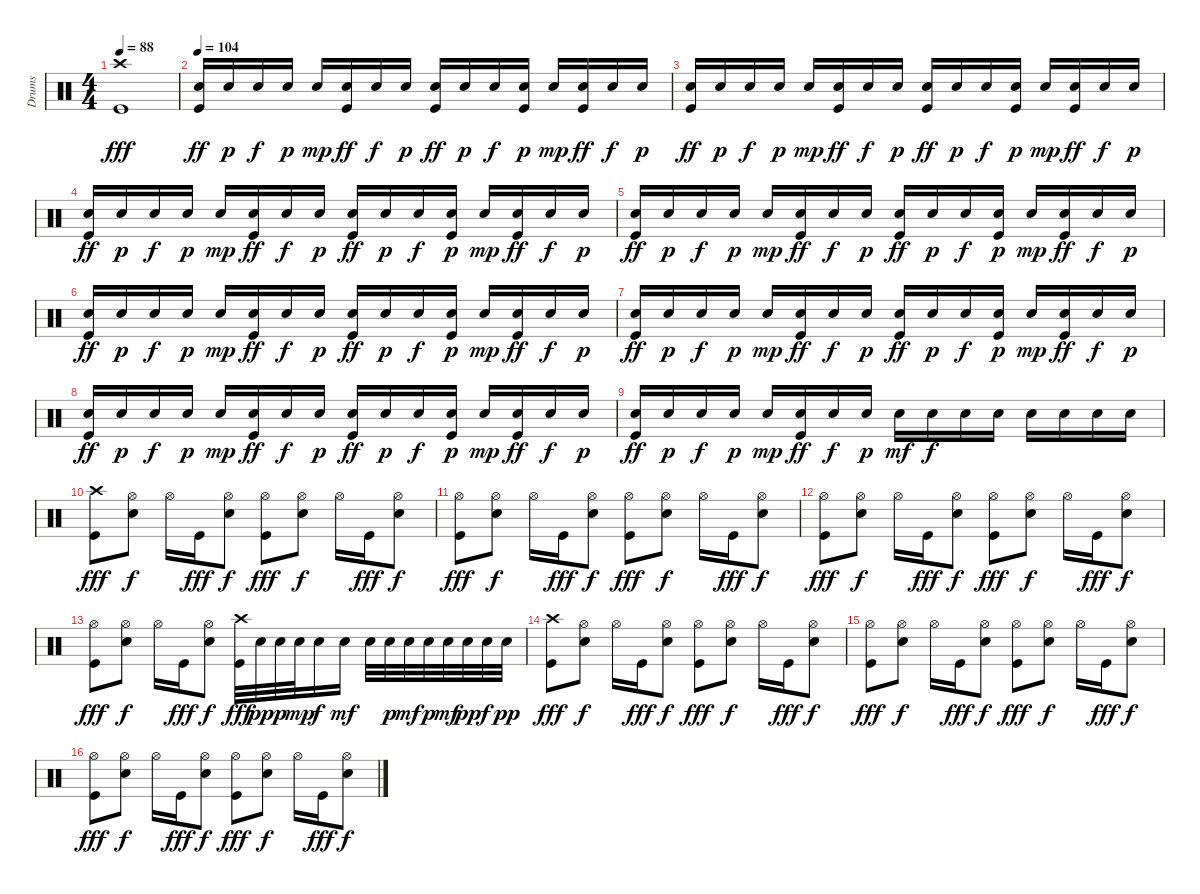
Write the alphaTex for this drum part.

\track ("Drums" "Drums") {instrument percussion}
\staff {score}
\articulation defaults
\ts (4 4)
\tempo 88
\clef neutral
\ks c
("Crash high (hit)" "Kick (hit)").1{dy fff} |
\tempo 104
("Snare (hit) 2" "Kick (hit)").16{dy ff} "Snare (hit) 2".16{dy p} "Snare (hit) 2".16{dy f} "Snare (hit) 2".16{dy p} "Snare (hit) 2".16{dy mp} ("Snare (hit) 2" "Kick (hit)").16{dy ff} "Snare (hit) 2".16{dy f} "Snare (hit) 2".16{dy p} ("Snare (hit) 2" "Kick (hit)").16{dy ff} "Snare (hit) 2".16{dy p} "Snare (hit) 2".16{dy f} ("Snare (hit) 2" "Kick (hit)").16{dy p} "Snare (hit) 2".16{dy mp} ("Snare (hit) 2" "Kick (hit)").16{dy ff} "Snare (hit) 2".16{dy f} "Snare (hit) 2".16{dy p} |
("Snare (hit) 2" "Kick (hit)").16{dy ff} "Snare (hit) 2".16{dy p} "Snare (hit) 2".16{dy f} "Snare (hit) 2".16{dy p} "Snare (hit) 2".16{dy mp} ("Snare (hit) 2" "Kick (hit)").16{dy ff} "Snare (hit) 2".16{dy f} "Snare (hit) 2".16{dy p} ("Snare (hit) 2" "Kick (hit)").16{dy ff} "Snare (hit) 2".16{dy p} "Snare (hit) 2".16{dy f} ("Snare (hit) 2" "Kick (hit)").16{dy p} "Snare (hit) 2".16{dy mp} ("Snare (hit) 2" "Kick (hit)").16{dy ff} "Snare (hit) 2".16{dy f} "Snare (hit) 2".16{dy p} |
("Snare (hit) 2" "Kick (hit)").16{dy ff} "Snare (hit) 2".16{dy p} "Snare (hit) 2".16{dy f} "Snare (hit) 2".16{dy p} "Snare (hit) 2".16{dy mp} ("Snare (hit) 2" "Kick (hit)").16{dy ff} "Snare (hit) 2".16{dy f} "Snare (hit) 2".16{dy p} ("Snare (hit) 2" "Kick (hit)").16{dy ff} "Snare (hit) 2".16{dy p} "Snare (hit) 2".16{dy f} ("Snare (hit) 2" "Kick (hit)").16{dy p} "Snare (hit) 2".16{dy mp} ("Snare (hit) 2" "Kick (hit)").16{dy ff} "Snare (hit) 2".16{dy f} "Snare (hit) 2".16{dy p} |
("Snare (hit) 2" "Kick (hit)").16{dy ff} "Snare (hit) 2".16{dy p} "Snare (hit) 2".16{dy f} "Snare (hit) 2".16{dy p} "Snare (hit) 2".16{dy mp} ("Snare (hit) 2" "Kick (hit)").16{dy ff} "Snare (hit) 2".16{dy f} "Snare (hit) 2".16{dy p} ("Snare (hit) 2" "Kick (hit)").16{dy ff} "Snare (hit) 2".16{dy p} "Snare (hit) 2".16{dy f} ("Snare (hit) 2" "Kick (hit)").16{dy p} "Snare (hit) 2".16{dy mp} ("Snare (hit) 2" "Kick (hit)").16{dy ff} "Snare (hit) 2".16{dy f} "Snare (hit) 2".16{dy p} |
("Snare (hit) 2" "Kick (hit)").16{dy ff} "Snare (hit) 2".16{dy p} "Snare (hit) 2".16{dy f} "Snare (hit) 2".16{dy p} "Snare (hit) 2".16{dy mp} ("Snare (hit) 2" "Kick (hit)").16{dy ff} "Snare (hit) 2".16{dy f} "Snare (hit) 2".16{dy p} ("Snare (hit) 2" "Kick (hit)").16{dy ff} "Snare (hit) 2".16{dy p} "Snare (hit) 2".16{dy f} ("Snare (hit) 2" "Kick (hit)").16{dy p} "Snare (hit) 2".16{dy mp} ("Snare (hit) 2" "Kick (hit)").16{dy ff} "Snare (hit) 2".16{dy f} "Snare (hit) 2".16{dy p} |
("Snare (hit) 2" "Kick (hit)").16{dy ff} "Snare (hit) 2".16{dy p} "Snare (hit) 2".16{dy f} "Snare (hit) 2".16{dy p} "Snare (hit) 2".16{dy mp} ("Snare (hit) 2" "Kick (hit)").16{dy ff} "Snare (hit) 2".16{dy f} "Snare (hit) 2".16{dy p} ("Snare (hit) 2" "Kick (hit)").16{dy ff} "Snare (hit) 2".16{dy p} "Snare (hit) 2".16{dy f} ("Snare (hit) 2" "Kick (hit)").16{dy p} "Snare (hit) 2".16{dy mp} ("Snare (hit) 2" "Kick (hit)").16{dy ff} "Snare (hit) 2".16{dy f} "Snare (hit) 2".16{dy p} |
("Snare (hit) 2" "Kick (hit)").16{dy ff} "Snare (hit) 2".16{dy p} "Snare (hit) 2".16{dy f} "Snare (hit) 2".16{dy p} "Snare (hit) 2".16{dy mp} ("Snare (hit) 2" "Kick (hit)").16{dy ff} "Snare (hit) 2".16{dy f} "Snare (hit) 2".16{dy p} ("Snare (hit) 2" "Kick (hit)").16{dy ff} "Snare (hit) 2".16{dy p} "Snare (hit) 2".16{dy f} ("Snare (hit) 2" "Kick (hit)").16{dy p} "Snare (hit) 2".16{dy mp} ("Snare (hit) 2" "Kick (hit)").16{dy ff} "Snare (hit) 2".16{dy f} "Snare (hit) 2".16{dy p} |
("Snare (hit) 2" "Kick (hit)").16{dy ff} "Snare (hit) 2".16{dy p} "Snare (hit) 2".16{dy f} "Snare (hit) 2".16{dy p} "Snare (hit) 2".16{dy mp} ("Snare (hit) 2" "Kick (hit)").16{dy ff} "Snare (hit) 2".16{dy f} "Snare (hit) 2".16{dy p} "Snare (hit) 2".16{dy mf} "Snare (hit) 2".16{dy f} "Snare (hit) 2".16 "Snare (hit) 2".16 "Snare (hit) 2".16 "Snare (hit) 2".16 "Snare (hit) 2".16 "Snare (hit) 2".16 |
("Crash high (hit)" "Kick (hit)").8{dy fff} ("Hi-Hat (open)" "Snare (hit) 2").8{dy f} "Hi-Hat (open)".16 "Kick (hit)".16{dy fff} ("Hi-Hat (open)" "Snare (hit) 2").8{dy f} ("Hi-Hat (open)" "Kick (hit)").8{dy fff} ("Hi-Hat (open)" "Snare (hit) 2").8{dy f} "Hi-Hat (open)".16 "Kick (hit)".16{dy fff} ("Hi-Hat (open)" "Snare (hit) 2").8{dy f} |
("Hi-Hat (open)" "Kick (hit)").8{dy fff} ("Hi-Hat (open)" "Snare (hit) 2").8{dy f} "Hi-Hat (open)".16 "Kick (hit)".16{dy fff} ("Hi-Hat (open)" "Snare (hit) 2").8{dy f} ("Hi-Hat (open)" "Kick (hit)").8{dy fff} ("Hi-Hat (open)" "Snare (hit) 2").8{dy f} "Hi-Hat (open)".16 "Kick (hit)".16{dy fff} ("Hi-Hat (open)" "Snare (hit) 2").8{dy f} |
("Hi-Hat (open)" "Kick (hit)").8{dy fff} ("Hi-Hat (open)" "Snare (hit) 2").8{dy f} "Hi-Hat (open)".16 "Kick (hit)".16{dy fff} ("Hi-Hat (open)" "Snare (hit) 2").8{dy f} ("Hi-Hat (open)" "Kick (hit)").8{dy fff} ("Hi-Hat (open)" "Snare (hit) 2").8{dy f} "Hi-Hat (open)".16 "Kick (hit)".16{dy fff} ("Hi-Hat (open)" "Snare (hit) 2").8{dy f} |
("Hi-Hat (open)" "Kick (hit)").8{dy fff} ("Hi-Hat (open)" "Snare (hit) 2").8{dy f} "Hi-Hat (open)".16 "Kick (hit)".16{dy fff} ("Hi-Hat (open)" "Snare (hit) 2").8{dy f} ("Crash high (hit)" "Kick (hit)").32{dy fff} "Snare (hit) 2".32{dy pp} "Snare (hit) 2".32{dy p} "Snare (hit) 2".32{dy mp} "Snare (hit) 2".16{dy f} "Snare (hit) 2".16{dy mf} "Snare (hit) 2".32 "Snare (hit) 2".32{dy p} "Snare (hit) 2".32{dy mf} "Snare (hit) 2".32{dy p} "Snare (hit) 2".32{dy mf} "Snare (hit) 2".32{dy pp} "Snare (hit) 2".32{dy f} "Snare (hit) 2".32{dy pp} |
("Crash high (hit)" "Kick (hit)").8{dy fff} ("Hi-Hat (open)" "Snare (hit) 2").8{dy f} "Hi-Hat (open)".16 "Kick (hit)".16{dy fff} ("Hi-Hat (open)" "Snare (hit) 2").8{dy f} ("Hi-Hat (open)" "Kick (hit)").8{dy fff} ("Hi-Hat (open)" "Snare (hit) 2").8{dy f} "Hi-Hat (open)".16 "Kick (hit)".16{dy fff} ("Hi-Hat (open)" "Snare (hit) 2").8{dy f} |
("Hi-Hat (open)" "Kick (hit)").8{dy fff} ("Hi-Hat (open)" "Snare (hit) 2").8{dy f} "Hi-Hat (open)".16 "Kick (hit)".16{dy fff} ("Hi-Hat (open)" "Snare (hit) 2").8{dy f} ("Hi-Hat (open)" "Kick (hit)").8{dy fff} ("Hi-Hat (open)" "Snare (hit) 2").8{dy f} "Hi-Hat (open)".16 "Kick (hit)".16{dy fff} ("Hi-Hat (open)" "Snare (hit) 2").8{dy f} |
("Hi-Hat (open)" "Kick (hit)").8{dy fff} ("Hi-Hat (open)" "Snare (hit) 2").8{dy f} "Hi-Hat (open)".16 "Kick (hit)".16{dy fff} ("Hi-Hat (open)" "Snare (hit) 2").8{dy f} ("Hi-Hat (open)" "Kick (hit)").8{dy fff} ("Hi-Hat (open)" "Snare (hit) 2").8{dy f} "Hi-Hat (open)".16 "Kick (hit)".16{dy fff} ("Hi-Hat (open)" "Snare (hit) 2").8{dy f}
